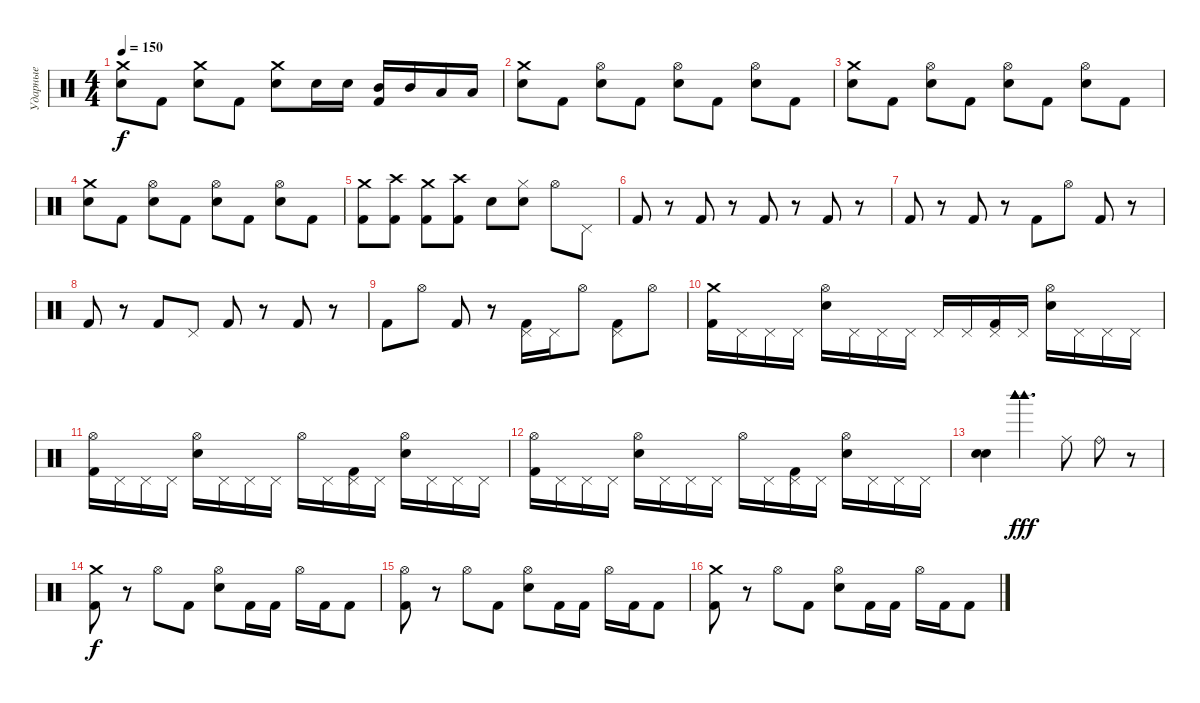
\track ("Ударные" "Ударные") {instrument percussion}
\staff {score}
\articulation defaults
\ts (4 4)
\tempo 150
\clef neutral
\ks c
("Crash medium (hit)" "Electric Snare (hit)").8{dy f} "Kick (hit) 2".8 ("Crash medium (hit)" "Electric Snare (hit)").8 "Kick (hit) 2".8 ("Crash medium (hit)" "Electric Snare (hit)").8 "Electric Snare (hit)".16 "Electric Snare (hit)".16 ("Mid Tom (hit)" "Kick (hit) 2").16 "Mid Tom (hit)".16 "Low Tom (hit)".16 "Low Tom (hit)".16 |
("Crash medium (hit)" "Electric Snare (hit)").8 "Kick (hit) 2".8 ("Hi-Hat (open)" "Electric Snare (hit)").8 "Kick (hit) 2".8 ("Hi-Hat (open)" "Electric Snare (hit)").8 "Kick (hit) 2".8 ("Hi-Hat (open)" "Electric Snare (hit)").8 "Kick (hit) 2".8 |
("Crash medium (hit)" "Electric Snare (hit)").8 "Kick (hit) 2".8 ("Hi-Hat (open)" "Electric Snare (hit)").8 "Kick (hit) 2".8 ("Hi-Hat (open)" "Electric Snare (hit)").8 "Kick (hit) 2".8 ("Hi-Hat (open)" "Electric Snare (hit)").8 "Kick (hit) 2".8 |
("Crash medium (hit)" "Electric Snare (hit)").8 "Kick (hit) 2".8 ("Hi-Hat (open)" "Electric Snare (hit)").8 "Kick (hit) 2".8 ("Hi-Hat (open)" "Electric Snare (hit)").8 "Kick (hit) 2".8 ("Hi-Hat (open)" "Electric Snare (hit)").8 "Kick (hit) 2".8 |
("Crash medium (hit)" "Kick (hit) 2").8 ("Crash high (hit)" "Kick (hit) 2").8 ("Crash medium (hit)" "Kick (hit) 2").8 ("Crash high (hit)" "Kick (hit) 2").8 "Electric Snare (hit)".8 ("Snare (hit)" "Hi-Hat (closed)").8 "Hi-Hat (open)".8 "Pedal Hi-Hat (hit)".8 |
"Kick (hit) 2".8 r.8 "Kick (hit) 2".8 r.8 "Kick (hit) 2".8 r.8 "Kick (hit) 2".8 r.8 |
"Kick (hit) 2".8 r.8 "Kick (hit) 2".8 r.8 "Kick (hit) 2".8 "Hi-Hat (open)".8 "Kick (hit) 2".8 r.8 |
"Kick (hit) 2".8 r.8 "Kick (hit) 2".8 "Pedal Hi-Hat (hit)".8 "Kick (hit) 2".8 r.8 "Kick (hit) 2".8 r.8 |
"Kick (hit) 2".8 "Hi-Hat (open)".8 "Kick (hit) 2".8 r.8 ("Pedal Hi-Hat (hit)" "Kick (hit) 2").16 "Pedal Hi-Hat (hit)".16 "Hi-Hat (open)".8 ("Pedal Hi-Hat (hit)" "Kick (hit) 2").8 "Hi-Hat (open)".8 |
("Crash medium (hit)" "Kick (hit) 2").16 "Pedal Hi-Hat (hit)".16 "Pedal Hi-Hat (hit)".16 "Pedal Hi-Hat (hit)".16 ("Hi-Hat (open)" "Electric Snare (hit)").16 "Pedal Hi-Hat (hit)".16 "Pedal Hi-Hat (hit)".16 "Pedal Hi-Hat (hit)".16 "Pedal Hi-Hat (hit)".16 "Pedal Hi-Hat (hit)".16 ("Pedal Hi-Hat (hit)" "Kick (hit) 2").16 "Pedal Hi-Hat (hit)".16 ("Hi-Hat (open)" "Electric Snare (hit)").16 "Pedal Hi-Hat (hit)".16 "Pedal Hi-Hat (hit)".16 "Pedal Hi-Hat (hit)".16 |
("Hi-Hat (open)" "Kick (hit) 2").16 "Pedal Hi-Hat (hit)".16 "Pedal Hi-Hat (hit)".16 "Pedal Hi-Hat (hit)".16 ("Hi-Hat (open)" "Electric Snare (hit)").16 "Pedal Hi-Hat (hit)".16 "Pedal Hi-Hat (hit)".16 "Pedal Hi-Hat (hit)".16 "Hi-Hat (open)".16 "Pedal Hi-Hat (hit)".16 ("Pedal Hi-Hat (hit)" "Kick (hit) 2").16 "Pedal Hi-Hat (hit)".16 ("Hi-Hat (open)" "Electric Snare (hit)").16 "Pedal Hi-Hat (hit)".16 "Pedal Hi-Hat (hit)".16 "Pedal Hi-Hat (hit)".16 |
("Hi-Hat (open)" "Kick (hit) 2").16 "Pedal Hi-Hat (hit)".16 "Pedal Hi-Hat (hit)".16 "Pedal Hi-Hat (hit)".16 ("Hi-Hat (open)" "Electric Snare (hit)").16 "Pedal Hi-Hat (hit)".16 "Pedal Hi-Hat (hit)".16 "Pedal Hi-Hat (hit)".16 "Hi-Hat (open)".16 "Pedal Hi-Hat (hit)".16 ("Pedal Hi-Hat (hit)" "Kick (hit) 2").16 "Pedal Hi-Hat (hit)".16 ("Hi-Hat (open)" "Electric Snare (hit)").16 "Pedal Hi-Hat (hit)".16 "Pedal Hi-Hat (hit)".16 "Pedal Hi-Hat (hit)".16 |
("Electric Snare (hit)" "Electric Snare (hit)").4 ("Woodblock high (hit)" "Woodblock high (hit)" "Woodblock high (hit)" "Woodblock high (hit)").4{d dy fff} "Ride (middle)".8 "Ride (bell)".8 r.8 |
("Crash medium (hit)" "Kick (hit) 2").8{dy f} r.8 "Hi-Hat (open)".8 "Kick (hit) 2".8 ("Hi-Hat (open)" "Electric Snare (hit)").8 "Kick (hit) 2".16 "Kick (hit) 2".16 "Hi-Hat (open)".16 "Kick (hit) 2".16 "Kick (hit) 2".8 |
("Hi-Hat (open)" "Kick (hit) 2").8 r.8 "Hi-Hat (open)".8 "Kick (hit) 2".8 ("Hi-Hat (open)" "Electric Snare (hit)").8 "Kick (hit) 2".16 "Kick (hit) 2".16 "Hi-Hat (open)".16 "Kick (hit) 2".16 "Kick (hit) 2".8 |
("Crash medium (hit)" "Kick (hit) 2").8 r.8 "Hi-Hat (open)".8 "Kick (hit) 2".8 ("Hi-Hat (open)" "Electric Snare (hit)").8 "Kick (hit) 2".16 "Kick (hit) 2".16 "Hi-Hat (open)".16 "Kick (hit) 2".16 "Kick (hit) 2".8
